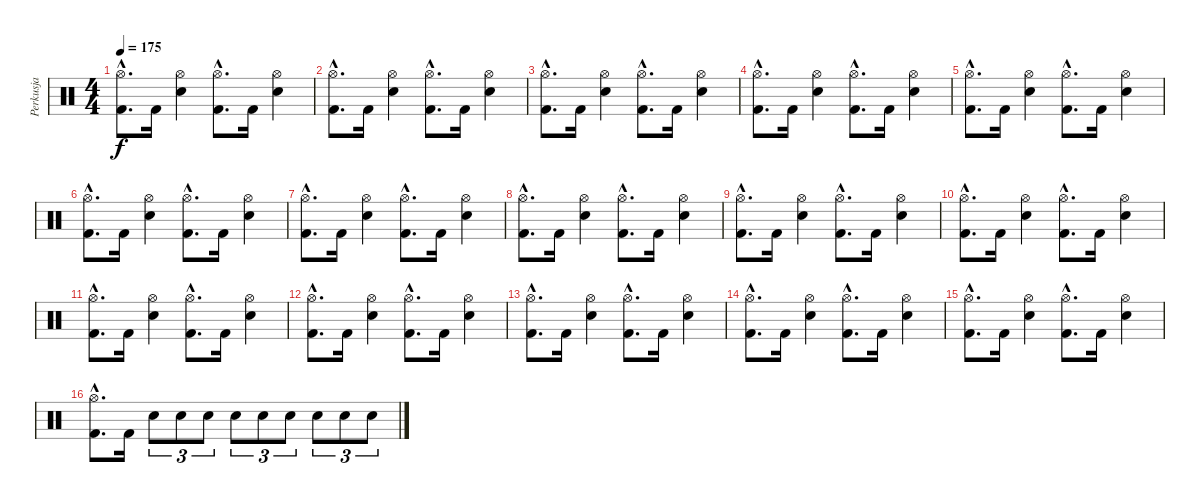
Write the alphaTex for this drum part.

\track ("Perkusja" "Perkusja") {instrument percussion}
\staff {score}
\articulation defaults
\ts (4 4)
\tempo 175
\clef neutral
\ks c
("Kick (hit) 2"{hac} "Hi-Hat (open)"{hac}).8{d dy f} "Kick (hit) 2".16 ("Snare (hit) 2" "Hi-Hat (open)").4 ("Kick (hit) 2"{hac} "Hi-Hat (open)"{hac}).8{d} "Kick (hit) 2".16 ("Snare (hit) 2" "Hi-Hat (open)").4 |
("Kick (hit) 2"{hac} "Hi-Hat (open)"{hac}).8{d} "Kick (hit) 2".16 ("Snare (hit) 2" "Hi-Hat (open)").4 ("Kick (hit) 2"{hac} "Hi-Hat (open)"{hac}).8{d} "Kick (hit) 2".16 ("Snare (hit) 2" "Hi-Hat (open)").4 |
("Kick (hit) 2"{hac} "Hi-Hat (open)"{hac}).8{d} "Kick (hit) 2".16 ("Snare (hit) 2" "Hi-Hat (open)").4 ("Kick (hit) 2"{hac} "Hi-Hat (open)"{hac}).8{d} "Kick (hit) 2".16 ("Snare (hit) 2" "Hi-Hat (open)").4 |
("Kick (hit) 2"{hac} "Hi-Hat (open)"{hac}).8{d} "Kick (hit) 2".16 ("Snare (hit) 2" "Hi-Hat (open)").4 ("Kick (hit) 2"{hac} "Hi-Hat (open)"{hac}).8{d} "Kick (hit) 2".16 ("Snare (hit) 2" "Hi-Hat (open)").4 |
("Kick (hit) 2"{hac} "Hi-Hat (open)"{hac}).8{d} "Kick (hit) 2".16 ("Snare (hit) 2" "Hi-Hat (open)").4 ("Kick (hit) 2"{hac} "Hi-Hat (open)"{hac}).8{d} "Kick (hit) 2".16 ("Snare (hit) 2" "Hi-Hat (open)").4 |
("Kick (hit) 2"{hac} "Hi-Hat (open)"{hac}).8{d} "Kick (hit) 2".16 ("Snare (hit) 2" "Hi-Hat (open)").4 ("Kick (hit) 2"{hac} "Hi-Hat (open)"{hac}).8{d} "Kick (hit) 2".16 ("Snare (hit) 2" "Hi-Hat (open)").4 |
("Kick (hit) 2"{hac} "Hi-Hat (open)"{hac}).8{d} "Kick (hit) 2".16 ("Snare (hit) 2" "Hi-Hat (open)").4 ("Kick (hit) 2"{hac} "Hi-Hat (open)"{hac}).8{d} "Kick (hit) 2".16 ("Snare (hit) 2" "Hi-Hat (open)").4 |
("Kick (hit) 2"{hac} "Hi-Hat (open)"{hac}).8{d} "Kick (hit) 2".16 ("Snare (hit) 2" "Hi-Hat (open)").4 ("Kick (hit) 2"{hac} "Hi-Hat (open)"{hac}).8{d} "Kick (hit) 2".16 ("Snare (hit) 2" "Hi-Hat (open)").4 |
("Kick (hit) 2"{hac} "Hi-Hat (open)"{hac}).8{d} "Kick (hit) 2".16 ("Snare (hit) 2" "Hi-Hat (open)").4 ("Kick (hit) 2"{hac} "Hi-Hat (open)"{hac}).8{d} "Kick (hit) 2".16 ("Snare (hit) 2" "Hi-Hat (open)").4 |
("Kick (hit) 2"{hac} "Hi-Hat (open)"{hac}).8{d} "Kick (hit) 2".16 ("Snare (hit) 2" "Hi-Hat (open)").4 ("Kick (hit) 2"{hac} "Hi-Hat (open)"{hac}).8{d} "Kick (hit) 2".16 ("Snare (hit) 2" "Hi-Hat (open)").4 |
("Kick (hit) 2"{hac} "Hi-Hat (open)"{hac}).8{d} "Kick (hit) 2".16 ("Snare (hit) 2" "Hi-Hat (open)").4 ("Kick (hit) 2"{hac} "Hi-Hat (open)"{hac}).8{d} "Kick (hit) 2".16 ("Snare (hit) 2" "Hi-Hat (open)").4 |
("Kick (hit) 2"{hac} "Hi-Hat (open)"{hac}).8{d} "Kick (hit) 2".16 ("Snare (hit) 2" "Hi-Hat (open)").4 ("Kick (hit) 2"{hac} "Hi-Hat (open)"{hac}).8{d} "Kick (hit) 2".16 ("Snare (hit) 2" "Hi-Hat (open)").4 |
("Kick (hit) 2"{hac} "Hi-Hat (open)"{hac}).8{d} "Kick (hit) 2".16 ("Snare (hit) 2" "Hi-Hat (open)").4 ("Kick (hit) 2"{hac} "Hi-Hat (open)"{hac}).8{d} "Kick (hit) 2".16 ("Snare (hit) 2" "Hi-Hat (open)").4 |
("Kick (hit) 2"{hac} "Hi-Hat (open)"{hac}).8{d} "Kick (hit) 2".16 ("Snare (hit) 2" "Hi-Hat (open)").4 ("Kick (hit) 2"{hac} "Hi-Hat (open)"{hac}).8{d} "Kick (hit) 2".16 ("Snare (hit) 2" "Hi-Hat (open)").4 |
("Kick (hit) 2"{hac} "Hi-Hat (open)"{hac}).8{d} "Kick (hit) 2".16 ("Snare (hit) 2" "Hi-Hat (open)").4 ("Kick (hit) 2"{hac} "Hi-Hat (open)"{hac}).8{d} "Kick (hit) 2".16 ("Snare (hit) 2" "Hi-Hat (open)").4 |
("Kick (hit) 2"{hac} "Hi-Hat (open)"{hac}).8{d} "Kick (hit) 2".16 "Snare (hit) 2".8{tu (3 2)} "Snare (hit) 2".8{tu (3 2)} "Snare (hit) 2".8{tu (3 2)} "Snare (hit) 2".8{tu (3 2)} "Snare (hit) 2".8{tu (3 2)} "Snare (hit) 2".8{tu (3 2)} "Snare (hit) 2".8{tu (3 2)} "Snare (hit) 2".8{tu (3 2)} "Snare (hit) 2".8{tu (3 2)}
